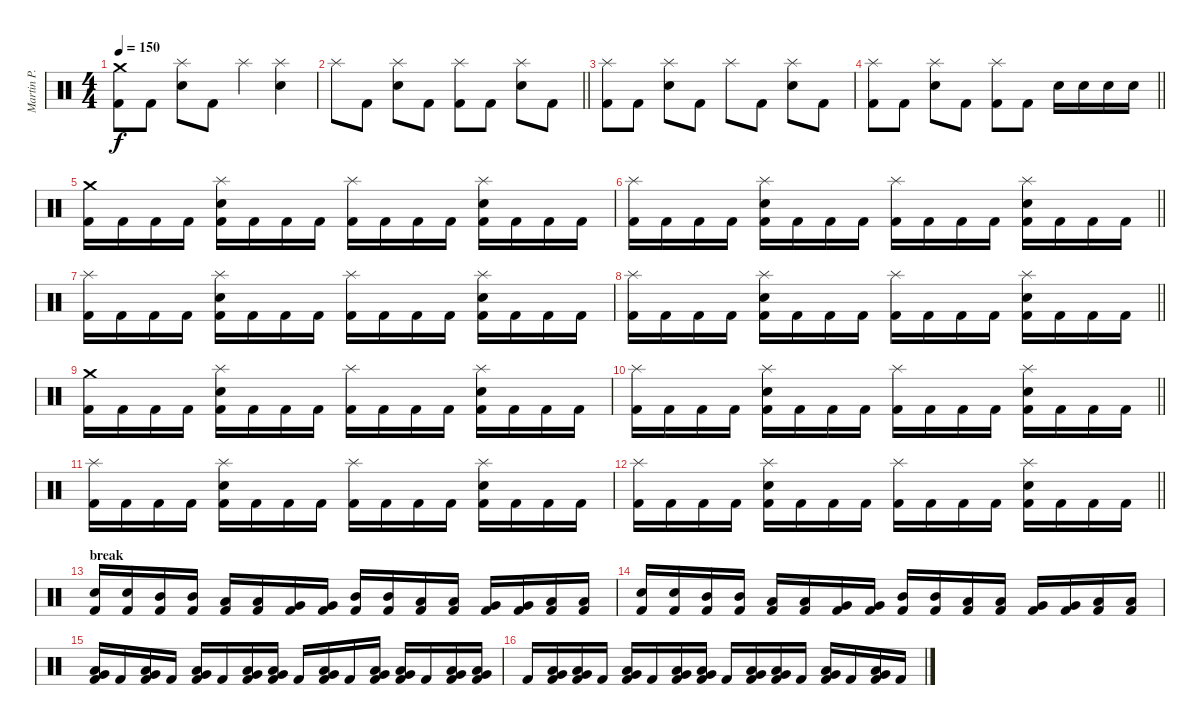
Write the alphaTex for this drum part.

\track ("Martin P." "Martin P.") {instrument percussion}
\staff {score}
\articulation defaults
\ts (4 4)
\tempo 150
\clef neutral
\ks c
("Kick (hit) 2" "Crash medium (hit)").8{dy f} "Kick (hit) 2".8 ("Electric Snare (hit)" "Splash (hit)").8 "Kick (hit) 2".8 "Splash (hit)".4 ("Electric Snare (hit)" "Splash (hit)").4 |
\barLineRight lightlight "Splash (hit)".8 "Kick (hit) 2".8
("Electric Snare (hit)" "Splash (hit)").8 "Kick (hit) 2".8 ("Kick (hit) 2" "Splash (hit)").8 "Kick (hit) 2".8 ("Electric Snare (hit)" "Splash (hit)").8 "Kick (hit) 2".8 |
("Splash (hit)" "Kick (hit) 2").8 "Kick (hit) 2".8 ("Electric Snare (hit)" "Splash (hit)").8 "Kick (hit) 2".8 "Splash (hit)".8 "Kick (hit) 2".8 ("Electric Snare (hit)" "Splash (hit)").8 "Kick (hit) 2".8 |
\barLineRight lightlight
("Kick (hit) 2" "Splash (hit)").8 "Kick (hit) 2".8 ("Electric Snare (hit)" "Splash (hit)").8 "Kick (hit) 2".8 ("Kick (hit) 2" "Splash (hit)").8 "Kick (hit) 2".8 "Electric Snare (hit)".16 "Electric Snare (hit)".16 "Electric Snare (hit)".16 "Electric Snare (hit)".16 |
("Crash medium (hit)" "Kick (hit) 2").16 "Kick (hit) 2".16 "Kick (hit) 2".16 "Kick (hit) 2".16 ("Splash (hit)" "Electric Snare (hit)" "Kick (hit) 2").16 "Kick (hit) 2".16 "Kick (hit) 2".16 "Kick (hit) 2".16 ("Splash (hit)" "Kick (hit) 2").16 "Kick (hit) 2".16 "Kick (hit) 2".16 "Kick (hit) 2".16 ("Splash (hit)" "Electric Snare (hit)" "Kick (hit) 2").16 "Kick (hit) 2".16 "Kick (hit) 2".16 "Kick (hit) 2".16 |
\barLineRight lightlight
("Splash (hit)" "Kick (hit) 2").16 "Kick (hit) 2".16 "Kick (hit) 2".16 "Kick (hit) 2".16 ("Splash (hit)" "Electric Snare (hit)" "Kick (hit) 2").16 "Kick (hit) 2".16 "Kick (hit) 2".16 "Kick (hit) 2".16 ("Splash (hit)" "Kick (hit) 2").16 "Kick (hit) 2".16 "Kick (hit) 2".16 "Kick (hit) 2".16 ("Splash (hit)" "Electric Snare (hit)" "Kick (hit) 2").16 "Kick (hit) 2".16 "Kick (hit) 2".16 "Kick (hit) 2".16 |
("Splash (hit)" "Kick (hit) 2").16 "Kick (hit) 2".16 "Kick (hit) 2".16 "Kick (hit) 2".16 ("Splash (hit)" "Electric Snare (hit)" "Kick (hit) 2").16 "Kick (hit) 2".16 "Kick (hit) 2".16 "Kick (hit) 2".16 ("Splash (hit)" "Kick (hit) 2").16 "Kick (hit) 2".16 "Kick (hit) 2".16 "Kick (hit) 2".16 ("Splash (hit)" "Electric Snare (hit)" "Kick (hit) 2").16 "Kick (hit) 2".16 "Kick (hit) 2".16 "Kick (hit) 2".16 |
\barLineRight lightlight
("Splash (hit)" "Kick (hit) 2").16 "Kick (hit) 2".16 "Kick (hit) 2".16 "Kick (hit) 2".16 ("Splash (hit)" "Electric Snare (hit)" "Kick (hit) 2").16 "Kick (hit) 2".16 "Kick (hit) 2".16 "Kick (hit) 2".16 ("Splash (hit)" "Kick (hit) 2").16 "Kick (hit) 2".16 "Kick (hit) 2".16 "Kick (hit) 2".16 ("Splash (hit)" "Electric Snare (hit)" "Kick (hit) 2").16 "Kick (hit) 2".16 "Kick (hit) 2".16 "Kick (hit) 2".16 |
("Crash medium (hit)" "Kick (hit) 2").16 "Kick (hit) 2".16 "Kick (hit) 2".16 "Kick (hit) 2".16 ("Splash (hit)" "Electric Snare (hit)" "Kick (hit) 2").16 "Kick (hit) 2".16 "Kick (hit) 2".16 "Kick (hit) 2".16 ("Splash (hit)" "Kick (hit) 2").16 "Kick (hit) 2".16 "Kick (hit) 2".16 "Kick (hit) 2".16 ("Splash (hit)" "Electric Snare (hit)" "Kick (hit) 2").16 "Kick (hit) 2".16 "Kick (hit) 2".16 "Kick (hit) 2".16 |
\barLineRight lightlight
("Splash (hit)" "Kick (hit) 2").16 "Kick (hit) 2".16 "Kick (hit) 2".16 "Kick (hit) 2".16 ("Splash (hit)" "Electric Snare (hit)" "Kick (hit) 2").16 "Kick (hit) 2".16 "Kick (hit) 2".16 "Kick (hit) 2".16 ("Splash (hit)" "Kick (hit) 2").16 "Kick (hit) 2".16 "Kick (hit) 2".16 "Kick (hit) 2".16 ("Splash (hit)" "Electric Snare (hit)" "Kick (hit) 2").16 "Kick (hit) 2".16 "Kick (hit) 2".16 "Kick (hit) 2".16 |
("Splash (hit)" "Kick (hit) 2").16 "Kick (hit) 2".16 "Kick (hit) 2".16 "Kick (hit) 2".16 ("Splash (hit)" "Electric Snare (hit)" "Kick (hit) 2").16 "Kick (hit) 2".16 "Kick (hit) 2".16 "Kick (hit) 2".16 ("Splash (hit)" "Kick (hit) 2").16 "Kick (hit) 2".16 "Kick (hit) 2".16 "Kick (hit) 2".16 ("Splash (hit)" "Electric Snare (hit)" "Kick (hit) 2").16 "Kick (hit) 2".16 "Kick (hit) 2".16 "Kick (hit) 2".16 |
\barLineRight lightlight
("Splash (hit)" "Kick (hit) 2").16 "Kick (hit) 2".16 "Kick (hit) 2".16 "Kick (hit) 2".16 ("Splash (hit)" "Electric Snare (hit)" "Kick (hit) 2").16 "Kick (hit) 2".16 "Kick (hit) 2".16 "Kick (hit) 2".16 ("Splash (hit)" "Kick (hit) 2").16 "Kick (hit) 2".16 "Kick (hit) 2".16 "Kick (hit) 2".16 ("Splash (hit)" "Electric Snare (hit)" "Kick (hit) 2").16 "Kick (hit) 2".16 "Kick (hit) 2".16 "Kick (hit) 2".16 |
\section ("" "break")
("Electric Snare (hit)" "Kick (hit) 2").16 ("Electric Snare (hit)" "Kick (hit) 2").16 ("Mid Tom (hit)" "Kick (hit) 2").16 ("Mid Tom (hit)" "Kick (hit) 2").16 ("Low Tom (hit)" "Kick (hit) 2").16 ("Low Tom (hit)" "Kick (hit) 2").16 ("Very Low Tom (hit)" "Kick (hit) 2").16 ("Very Low Tom (hit)" "Kick (hit) 2").16 ("Mid Tom (hit)" "Kick (hit) 2").16 ("Mid Tom (hit)" "Kick (hit) 2").16 ("Low Tom (hit)" "Kick (hit) 2").16 ("Low Tom (hit)" "Kick (hit) 2").16 ("Very Low Tom (hit)" "Kick (hit) 2").16 ("Very Low Tom (hit)" "Kick (hit) 2").16 ("Low Floor Tom (hit)" "Kick (hit) 2").16 ("Low Floor Tom (hit)" "Kick (hit) 2").16 |
("Electric Snare (hit)" "Kick (hit) 2").16 ("Electric Snare (hit)" "Kick (hit) 2").16 ("Mid Tom (hit)" "Kick (hit) 2").16 ("Mid Tom (hit)" "Kick (hit) 2").16 ("Low Tom (hit)" "Kick (hit) 2").16 ("Low Tom (hit)" "Kick (hit) 2").16 ("Very Low Tom (hit)" "Kick (hit) 2").16 ("Very Low Tom (hit)" "Kick (hit) 2").16 ("Mid Tom (hit)" "Kick (hit) 2").16 ("Mid Tom (hit)" "Kick (hit) 2").16 ("Low Tom (hit)" "Kick (hit) 2").16 ("Low Tom (hit)" "Kick (hit) 2").16 ("Very Low Tom (hit)" "Kick (hit) 2").16 ("Very Low Tom (hit)" "Kick (hit) 2").16 ("Low Floor Tom (hit)" "Kick (hit) 2").16 ("Low Floor Tom (hit)" "Kick (hit) 2").16 |
("Low Floor Tom (hit)" "Very Low Tom (hit)" "Kick (hit) 2").16 "Kick (hit) 2".16 ("Low Floor Tom (hit)" "Very Low Tom (hit)" "Kick (hit) 2").16 "Kick (hit) 2".16 ("Low Floor Tom (hit)" "Very Low Tom (hit)" "Kick (hit) 2").16 "Kick (hit) 2".16 ("Low Floor Tom (hit)" "Very Low Tom (hit)" "Kick (hit) 2").16 ("Low Floor Tom (hit)" "Very Low Tom (hit)" "Kick (hit) 2").16 "Kick (hit) 2".16 ("Low Floor Tom (hit)" "Very Low Tom (hit)" "Kick (hit) 2").16 "Kick (hit) 2".16 ("Low Floor Tom (hit)" "Very Low Tom (hit)" "Kick (hit) 2").16 ("Low Floor Tom (hit)" "Very Low Tom (hit)" "Kick (hit) 2").16 "Kick (hit) 2".16 ("Low Floor Tom (hit)" "Very Low Tom (hit)" "Kick (hit) 2").16 ("Low Floor Tom (hit)" "Very Low Tom (hit)" "Kick (hit) 2").16 |
"Kick (hit) 2".16 ("Low Floor Tom (hit)" "Very Low Tom (hit)" "Kick (hit) 2").16 ("Low Floor Tom (hit)" "Very Low Tom (hit)" "Kick (hit) 2").16 "Kick (hit) 2".16 ("Low Floor Tom (hit)" "Very Low Tom (hit)" "Kick (hit) 2").16 "Kick (hit) 2".16 ("Low Floor Tom (hit)" "Very Low Tom (hit)" "Kick (hit) 2").16 ("Low Floor Tom (hit)" "Very Low Tom (hit)" "Kick (hit) 2").16 "Kick (hit) 2".16 ("Low Floor Tom (hit)" "Very Low Tom (hit)" "Kick (hit) 2").16 ("Low Floor Tom (hit)" "Very Low Tom (hit)" "Kick (hit) 2").16 "Kick (hit) 2".16 ("Low Floor Tom (hit)" "Very Low Tom (hit)" "Kick (hit) 2").16 "Kick (hit) 2".16 ("Low Floor Tom (hit)" "Very Low Tom (hit)" "Kick (hit) 2").16 "Kick (hit) 2".16
